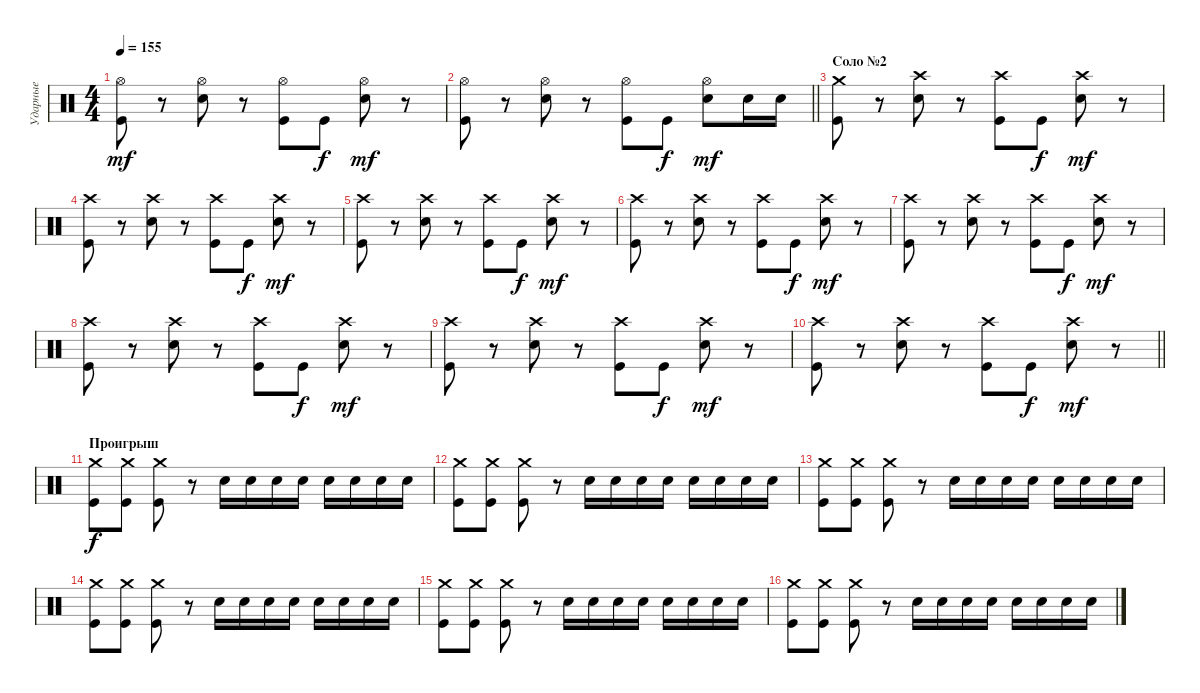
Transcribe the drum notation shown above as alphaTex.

\track ("Ударные" "Ударные") {instrument percussion}
\staff {score}
\articulation defaults
\ts (4 4)
\tempo 155
\clef neutral
\ks c
("Hi-Hat (open)" "Kick (hit)").8{dy mf} r.8 ("Hi-Hat (open)" "Electric Snare (hit)").8 r.8 ("Hi-Hat (open)" "Kick (hit)").8 "Kick (hit)".8{dy f} ("Hi-Hat (open)" "Electric Snare (hit)").8{dy mf} r.8 |
\barLineRight lightlight
("Hi-Hat (open)" "Kick (hit)").8 r.8 ("Hi-Hat (open)" "Electric Snare (hit)").8 r.8 ("Hi-Hat (open)" "Kick (hit)").8 "Kick (hit)".8{dy f} ("Hi-Hat (open)" "Electric Snare (hit)").8{dy mf} "Electric Snare (hit)".16 "Electric Snare (hit)".16 |
\section ("" "Соло №2")
("Crash medium (hit)" "Kick (hit)").8 r.8 ("Crash high (hit)" "Electric Snare (hit)").8 r.8 ("Crash high (hit)" "Kick (hit)").8 "Kick (hit)".8{dy f} ("Crash high (hit)" "Electric Snare (hit)").8{dy mf} r.8 |
("Crash high (hit)" "Kick (hit)").8 r.8 ("Crash high (hit)" "Electric Snare (hit)").8 r.8 ("Crash high (hit)" "Kick (hit)").8 "Kick (hit)".8{dy f} ("Crash high (hit)" "Electric Snare (hit)").8{dy mf} r.8 |
("Crash high (hit)" "Kick (hit)").8 r.8 ("Crash high (hit)" "Electric Snare (hit)").8 r.8 ("Crash high (hit)" "Kick (hit)").8 "Kick (hit)".8{dy f} ("Crash high (hit)" "Electric Snare (hit)").8{dy mf} r.8 |
("Crash high (hit)" "Kick (hit)").8 r.8 ("Crash high (hit)" "Electric Snare (hit)").8 r.8 ("Crash high (hit)" "Kick (hit)").8 "Kick (hit)".8{dy f} ("Crash high (hit)" "Electric Snare (hit)").8{dy mf} r.8 |
("Crash high (hit)" "Kick (hit)").8 r.8 ("Crash high (hit)" "Electric Snare (hit)").8 r.8 ("Crash high (hit)" "Kick (hit)").8 "Kick (hit)".8{dy f} ("Crash high (hit)" "Electric Snare (hit)").8{dy mf} r.8 |
("Crash high (hit)" "Kick (hit)").8 r.8 ("Crash high (hit)" "Electric Snare (hit)").8 r.8 ("Crash high (hit)" "Kick (hit)").8 "Kick (hit)".8{dy f} ("Crash high (hit)" "Electric Snare (hit)").8{dy mf} r.8 |
("Crash high (hit)" "Kick (hit)").8 r.8 ("Crash high (hit)" "Electric Snare (hit)").8 r.8 ("Crash high (hit)" "Kick (hit)").8 "Kick (hit)".8{dy f} ("Crash high (hit)" "Electric Snare (hit)").8{dy mf} r.8 |
\barLineRight lightlight
("Crash high (hit)" "Kick (hit)").8 r.8 ("Crash high (hit)" "Electric Snare (hit)").8 r.8 ("Crash high (hit)" "Kick (hit)").8 "Kick (hit)".8{dy f} ("Crash high (hit)" "Electric Snare (hit)").8{dy mf} r.8 |
\section ("" "Проигрыш")
("Crash medium (hit)" "Kick (hit)").8{dy f} ("Crash medium (hit)" "Kick (hit)").8 ("Crash medium (hit)" "Kick (hit)").8 r.8 "Electric Snare (hit)".16 "Electric Snare (hit)".16 "Electric Snare (hit)".16 "Electric Snare (hit)".16 "Electric Snare (hit)".16 "Electric Snare (hit)".16 "Electric Snare (hit)".16 "Electric Snare (hit)".16 |
("Crash medium (hit)" "Kick (hit)").8 ("Crash medium (hit)" "Kick (hit)").8 ("Crash medium (hit)" "Kick (hit)").8 r.8 "Electric Snare (hit)".16 "Electric Snare (hit)".16 "Electric Snare (hit)".16 "Electric Snare (hit)".16 "Electric Snare (hit)".16 "Electric Snare (hit)".16 "Electric Snare (hit)".16 "Electric Snare (hit)".16 |
("Crash medium (hit)" "Kick (hit)").8 ("Crash medium (hit)" "Kick (hit)").8 ("Crash medium (hit)" "Kick (hit)").8 r.8 "Electric Snare (hit)".16 "Electric Snare (hit)".16 "Electric Snare (hit)".16 "Electric Snare (hit)".16 "Electric Snare (hit)".16 "Electric Snare (hit)".16 "Electric Snare (hit)".16 "Electric Snare (hit)".16 |
("Crash medium (hit)" "Kick (hit)").8 ("Crash medium (hit)" "Kick (hit)").8 ("Crash medium (hit)" "Kick (hit)").8 r.8 "Electric Snare (hit)".16 "Electric Snare (hit)".16 "Electric Snare (hit)".16 "Electric Snare (hit)".16 "Electric Snare (hit)".16 "Electric Snare (hit)".16 "Electric Snare (hit)".16 "Electric Snare (hit)".16 |
("Crash medium (hit)" "Kick (hit)").8 ("Crash medium (hit)" "Kick (hit)").8 ("Crash medium (hit)" "Kick (hit)").8 r.8 "Electric Snare (hit)".16 "Electric Snare (hit)".16 "Electric Snare (hit)".16 "Electric Snare (hit)".16 "Electric Snare (hit)".16 "Electric Snare (hit)".16 "Electric Snare (hit)".16 "Electric Snare (hit)".16 |
("Crash medium (hit)" "Kick (hit)").8 ("Crash medium (hit)" "Kick (hit)").8 ("Crash medium (hit)" "Kick (hit)").8 r.8 "Electric Snare (hit)".16 "Electric Snare (hit)".16 "Electric Snare (hit)".16 "Electric Snare (hit)".16 "Electric Snare (hit)".16 "Electric Snare (hit)".16 "Electric Snare (hit)".16 "Electric Snare (hit)".16
